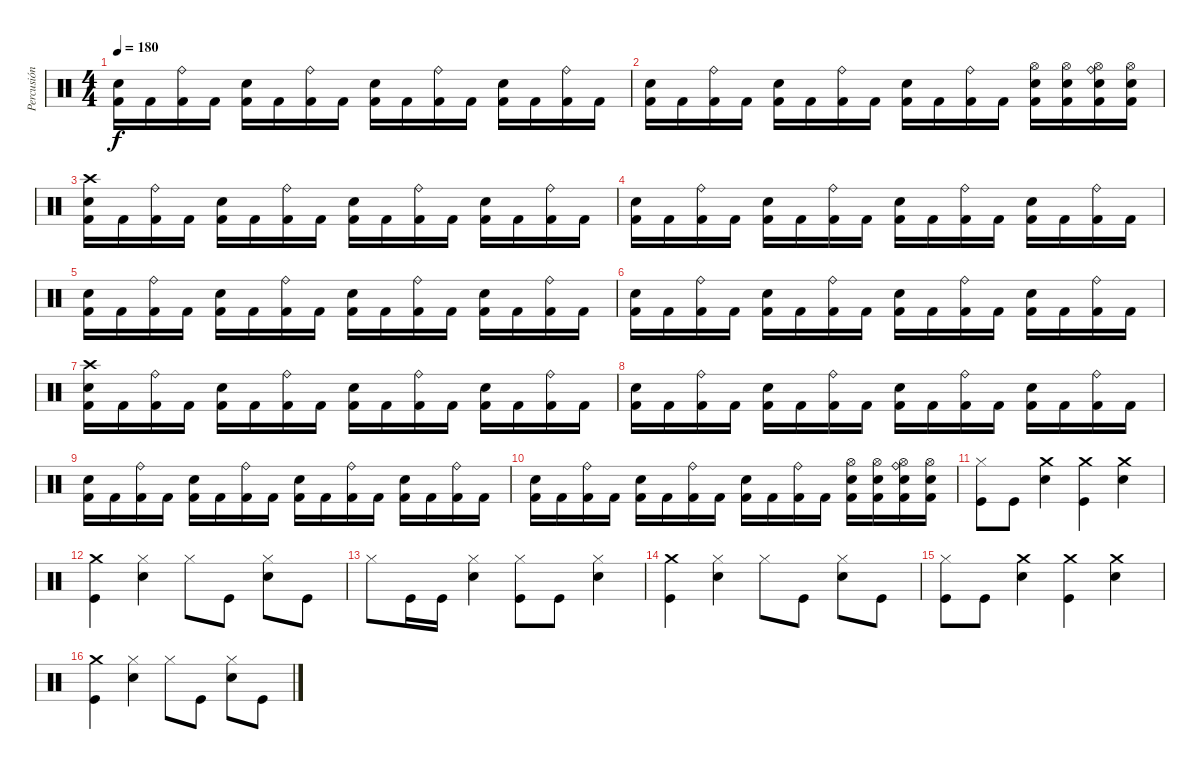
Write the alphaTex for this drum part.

\track ("Percusión" "Percusión") {instrument percussion}
\staff {score}
\articulation defaults
\ts (4 4)
\tempo 180
\clef neutral
\ks c
("Snare (hit) 2" "Kick (hit) 2").16{dy f} "Kick (hit) 2".16 ("Ride (bell)" "Kick (hit) 2").16 "Kick (hit) 2".16 ("Snare (hit) 2" "Kick (hit) 2").16 "Kick (hit) 2".16 ("Ride (bell)" "Kick (hit) 2").16 "Kick (hit) 2".16 ("Snare (hit) 2" "Kick (hit) 2").16 "Kick (hit) 2".16 ("Ride (bell)" "Kick (hit) 2").16 "Kick (hit) 2".16 ("Snare (hit) 2" "Kick (hit) 2").16 "Kick (hit) 2".16 ("Ride (bell)" "Kick (hit) 2").16 "Kick (hit) 2".16 |
("Snare (hit) 2" "Kick (hit) 2").16 "Kick (hit) 2".16 ("Ride (bell)" "Kick (hit) 2").16 "Kick (hit) 2".16 ("Snare (hit) 2" "Kick (hit) 2").16 "Kick (hit) 2".16 ("Ride (bell)" "Kick (hit) 2").16 "Kick (hit) 2".16 ("Snare (hit) 2" "Kick (hit) 2").16 "Kick (hit) 2".16 ("Ride (bell)" "Kick (hit) 2").16 "Kick (hit) 2".16 ("Snare (hit) 2" "Hi-Hat (open)" "Kick (hit) 2").16 ("Snare (hit) 2" "Hi-Hat (open)" "Kick (hit) 2").16 ("Snare (hit) 2" "Ride (bell)" "Hi-Hat (open)" "Kick (hit) 2").16 ("Snare (hit) 2" "Hi-Hat (open)" "Kick (hit) 2").16 |
("Snare (hit) 2" "Crash high (hit)" "Kick (hit) 2").16 "Kick (hit) 2".16 ("Ride (bell)" "Kick (hit) 2").16 "Kick (hit) 2".16 ("Snare (hit) 2" "Kick (hit) 2").16 "Kick (hit) 2".16 ("Ride (bell)" "Kick (hit) 2").16 "Kick (hit) 2".16 ("Snare (hit) 2" "Kick (hit) 2").16 "Kick (hit) 2".16 ("Ride (bell)" "Kick (hit) 2").16 "Kick (hit) 2".16 ("Snare (hit) 2" "Kick (hit) 2").16 "Kick (hit) 2".16 ("Ride (bell)" "Kick (hit) 2").16 "Kick (hit) 2".16 |
("Snare (hit) 2" "Kick (hit) 2").16 "Kick (hit) 2".16 ("Ride (bell)" "Kick (hit) 2").16 "Kick (hit) 2".16 ("Snare (hit) 2" "Kick (hit) 2").16 "Kick (hit) 2".16 ("Ride (bell)" "Kick (hit) 2").16 "Kick (hit) 2".16 ("Snare (hit) 2" "Kick (hit) 2").16 "Kick (hit) 2".16 ("Ride (bell)" "Kick (hit) 2").16 "Kick (hit) 2".16 ("Snare (hit) 2" "Kick (hit) 2").16 "Kick (hit) 2".16 ("Ride (bell)" "Kick (hit) 2").16 "Kick (hit) 2".16 |
("Snare (hit) 2" "Kick (hit) 2").16 "Kick (hit) 2".16 ("Ride (bell)" "Kick (hit) 2").16 "Kick (hit) 2".16 ("Snare (hit) 2" "Kick (hit) 2").16 "Kick (hit) 2".16 ("Ride (bell)" "Kick (hit) 2").16 "Kick (hit) 2".16 ("Snare (hit) 2" "Kick (hit) 2").16 "Kick (hit) 2".16 ("Ride (bell)" "Kick (hit) 2").16 "Kick (hit) 2".16 ("Snare (hit) 2" "Kick (hit) 2").16 "Kick (hit) 2".16 ("Ride (bell)" "Kick (hit) 2").16 "Kick (hit) 2".16 |
("Snare (hit) 2" "Kick (hit) 2").16 "Kick (hit) 2".16 ("Ride (bell)" "Kick (hit) 2").16 "Kick (hit) 2".16 ("Snare (hit) 2" "Kick (hit) 2").16 "Kick (hit) 2".16 ("Ride (bell)" "Kick (hit) 2").16 "Kick (hit) 2".16 ("Snare (hit) 2" "Kick (hit) 2").16 "Kick (hit) 2".16 ("Ride (bell)" "Kick (hit) 2").16 "Kick (hit) 2".16 ("Snare (hit) 2" "Kick (hit) 2").16 "Kick (hit) 2".16 ("Ride (bell)" "Kick (hit) 2").16 "Kick (hit) 2".16 |
("Snare (hit) 2" "Crash high (hit)" "Kick (hit) 2").16 "Kick (hit) 2".16 ("Ride (bell)" "Kick (hit) 2").16 "Kick (hit) 2".16 ("Snare (hit) 2" "Kick (hit) 2").16 "Kick (hit) 2".16 ("Ride (bell)" "Kick (hit) 2").16 "Kick (hit) 2".16 ("Snare (hit) 2" "Kick (hit) 2").16 "Kick (hit) 2".16 ("Ride (bell)" "Kick (hit) 2").16 "Kick (hit) 2".16 ("Snare (hit) 2" "Kick (hit) 2").16 "Kick (hit) 2".16 ("Ride (bell)" "Kick (hit) 2").16 "Kick (hit) 2".16 |
("Snare (hit) 2" "Kick (hit) 2").16 "Kick (hit) 2".16 ("Ride (bell)" "Kick (hit) 2").16 "Kick (hit) 2".16 ("Snare (hit) 2" "Kick (hit) 2").16 "Kick (hit) 2".16 ("Ride (bell)" "Kick (hit) 2").16 "Kick (hit) 2".16 ("Snare (hit) 2" "Kick (hit) 2").16 "Kick (hit) 2".16 ("Ride (bell)" "Kick (hit) 2").16 "Kick (hit) 2".16 ("Snare (hit) 2" "Kick (hit) 2").16 "Kick (hit) 2".16 ("Ride (bell)" "Kick (hit) 2").16 "Kick (hit) 2".16 |
("Snare (hit) 2" "Kick (hit) 2").16 "Kick (hit) 2".16 ("Ride (bell)" "Kick (hit) 2").16 "Kick (hit) 2".16 ("Snare (hit) 2" "Kick (hit) 2").16 "Kick (hit) 2".16 ("Ride (bell)" "Kick (hit) 2").16 "Kick (hit) 2".16 ("Snare (hit) 2" "Kick (hit) 2").16 "Kick (hit) 2".16 ("Ride (bell)" "Kick (hit) 2").16 "Kick (hit) 2".16 ("Snare (hit) 2" "Kick (hit) 2").16 "Kick (hit) 2".16 ("Ride (bell)" "Kick (hit) 2").16 "Kick (hit) 2".16 |
("Snare (hit) 2" "Kick (hit) 2").16 "Kick (hit) 2".16 ("Ride (bell)" "Kick (hit) 2").16 "Kick (hit) 2".16 ("Snare (hit) 2" "Kick (hit) 2").16 "Kick (hit) 2".16 ("Ride (bell)" "Kick (hit) 2").16 "Kick (hit) 2".16 ("Snare (hit) 2" "Kick (hit) 2").16 "Kick (hit) 2".16 ("Ride (bell)" "Kick (hit) 2").16 "Kick (hit) 2".16 ("Snare (hit) 2" "Hi-Hat (open)" "Kick (hit) 2").16 ("Snare (hit) 2" "Hi-Hat (open)" "Kick (hit) 2").16 ("Snare (hit) 2" "Ride (bell)" "Hi-Hat (open)" "Kick (hit) 2").16 ("Snare (hit) 2" "Hi-Hat (open)" "Kick (hit) 2").16 |
("Kick (hit)" "Hi-Hat (closed)").8 "Kick (hit)".8 ("Crash medium (hit)" "Snare (hit) 2").4 ("Kick (hit)" "Crash medium (hit)").4 ("Snare (hit) 2" "Crash medium (hit)").4 |
("Kick (hit)" "Crash medium (hit)").4 ("Snare (hit) 2" "Hi-Hat (closed)").4 "Hi-Hat (closed)".8 "Kick (hit)".8 ("Snare (hit) 2" "Hi-Hat (closed)").8 "Kick (hit)".8 |
"Hi-Hat (closed)".8 "Kick (hit)".16 "Kick (hit)".16 ("Snare (hit) 2" "Hi-Hat (closed)").4 ("Kick (hit)" "Hi-Hat (closed)").8 "Kick (hit)".8 ("Snare (hit) 2" "Hi-Hat (closed)").4 |
("Kick (hit)" "Crash medium (hit)").4 ("Hi-Hat (closed)" "Snare (hit) 2").4 "Hi-Hat (closed)".8 "Kick (hit)".8 ("Snare (hit) 2" "Hi-Hat (closed)").8 "Kick (hit)".8 |
("Kick (hit)" "Hi-Hat (closed)").8 "Kick (hit)".8 ("Crash medium (hit)" "Snare (hit) 2").4 ("Kick (hit)" "Crash medium (hit)").4 ("Snare (hit) 2" "Crash medium (hit)").4 |
("Kick (hit)" "Crash medium (hit)").4 ("Snare (hit) 2" "Hi-Hat (closed)").4 "Hi-Hat (closed)".8 "Kick (hit)".8 ("Snare (hit) 2" "Hi-Hat (closed)").8 "Kick (hit)".8
